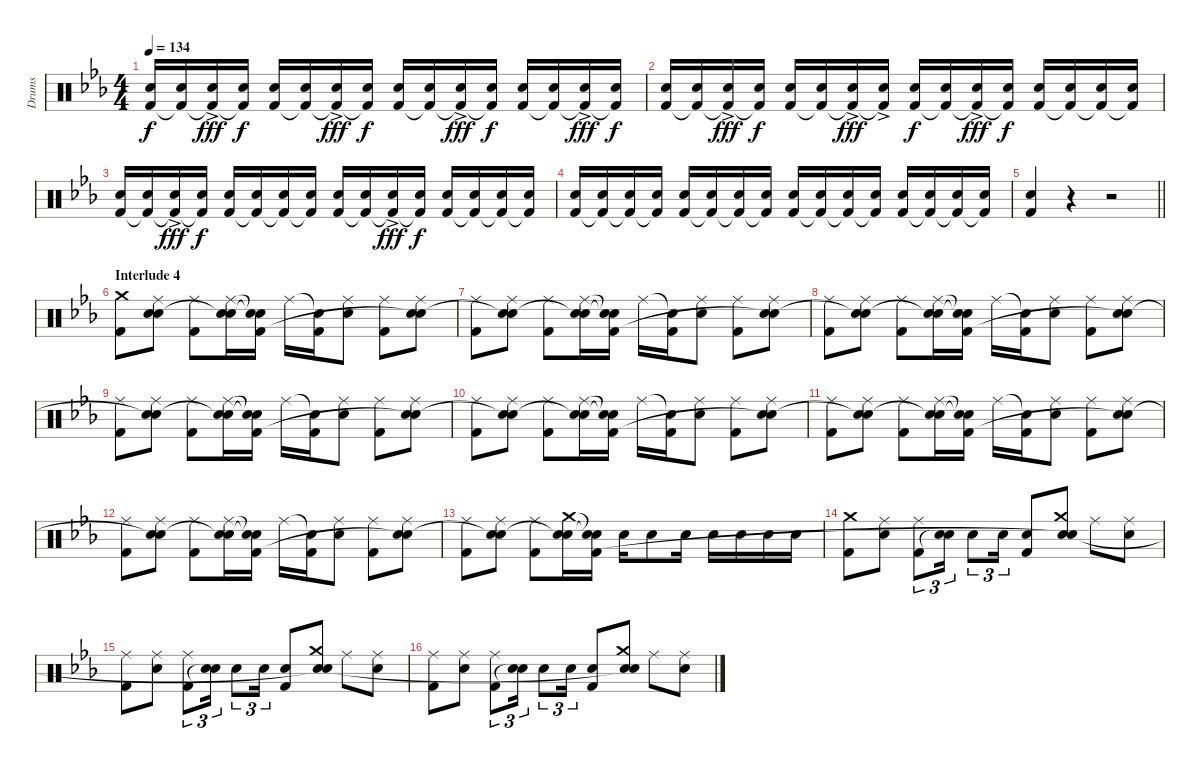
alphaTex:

\track ("Drums" "Drums") {instrument percussion}
\staff {score}
\articulation defaults
\ts (4 4)
\tempo 134
\clef neutral
\ks eb
("Electric Snare (hit)" "Kick (hit) 2").16{dy f} ("Electric Snare (hit)" "Kick (hit) 2"{t}).16 ("Electric Snare (hit)"{ac} "Kick (hit) 2"{t}).16{dy fff} ("Electric Snare (hit)" "Kick (hit) 2"{t}).16{dy f} ("Electric Snare (hit)" "Kick (hit) 2").16 ("Electric Snare (hit)" "Kick (hit) 2"{t}).16 ("Electric Snare (hit)"{ac} "Kick (hit) 2"{t}).16{dy fff} ("Electric Snare (hit)" "Kick (hit) 2"{t}).16{dy f} ("Electric Snare (hit)" "Kick (hit) 2").16 ("Electric Snare (hit)" "Kick (hit) 2"{t}).16 ("Electric Snare (hit)"{ac} "Kick (hit) 2"{t}).16{dy fff} ("Electric Snare (hit)" "Kick (hit) 2"{t}).16{dy f} ("Electric Snare (hit)" "Kick (hit) 2").16 ("Electric Snare (hit)" "Kick (hit) 2"{t}).16 ("Electric Snare (hit)"{ac} "Kick (hit) 2"{t}).16{dy fff} ("Electric Snare (hit)" "Kick (hit) 2"{t}).16{dy f} |
("Electric Snare (hit)" "Kick (hit) 2").16 ("Electric Snare (hit)" "Kick (hit) 2"{t}).16 ("Electric Snare (hit)"{ac} "Kick (hit) 2"{t}).16{dy fff} ("Electric Snare (hit)" "Kick (hit) 2"{t}).16{dy f} ("Electric Snare (hit)" "Kick (hit) 2").16 ("Electric Snare (hit)" "Kick (hit) 2"{t}).16 ("Electric Snare (hit)"{ac} "Kick (hit) 2"{t}).16{dy fff} ("Electric Snare (hit)"{ac} "Kick (hit) 2"{t}).16 ("Electric Snare (hit)" "Kick (hit) 2").16{dy f} ("Electric Snare (hit)" "Kick (hit) 2"{t}).16 ("Electric Snare (hit)"{ac} "Kick (hit) 2"{t}).16{dy fff} ("Electric Snare (hit)" "Kick (hit) 2"{t}).16{dy f} ("Electric Snare (hit)" "Kick (hit) 2").16 ("Electric Snare (hit)" "Kick (hit) 2"{t}).16 ("Electric Snare (hit)" "Kick (hit) 2"{t}).16 ("Electric Snare (hit)" "Kick (hit) 2"{t}).16 |
("Electric Snare (hit)" "Kick (hit) 2").16 ("Electric Snare (hit)" "Kick (hit) 2"{t}).16 ("Electric Snare (hit)"{ac} "Kick (hit) 2"{t}).16{dy fff} ("Electric Snare (hit)" "Kick (hit) 2"{t}).16{dy f} ("Electric Snare (hit)" "Kick (hit) 2").16 ("Electric Snare (hit)" "Kick (hit) 2"{t}).16 ("Electric Snare (hit)" "Kick (hit) 2"{t}).16 ("Electric Snare (hit)" "Kick (hit) 2"{t}).16 ("Electric Snare (hit)" "Kick (hit) 2").16 ("Electric Snare (hit)" "Kick (hit) 2"{t}).16 ("Electric Snare (hit)"{ac} "Kick (hit) 2"{t}).16{dy fff} ("Electric Snare (hit)" "Kick (hit) 2"{t}).16{dy f} ("Electric Snare (hit)" "Kick (hit) 2").16 ("Electric Snare (hit)" "Kick (hit) 2"{t}).16 ("Electric Snare (hit)" "Kick (hit) 2"{t}).16 ("Electric Snare (hit)" "Kick (hit) 2"{t}).16 |
("Electric Snare (hit)" "Kick (hit) 2").16 ("Electric Snare (hit)" "Kick (hit) 2"{t}).16 ("Electric Snare (hit)" "Kick (hit) 2"{t}).16 ("Electric Snare (hit)" "Kick (hit) 2"{t}).16 ("Electric Snare (hit)" "Kick (hit) 2").16 ("Electric Snare (hit)" "Kick (hit) 2"{t}).16 ("Electric Snare (hit)" "Kick (hit) 2"{t}).16 ("Electric Snare (hit)" "Kick (hit) 2"{t}).16 ("Electric Snare (hit)" "Kick (hit) 2").16 ("Electric Snare (hit)" "Kick (hit) 2"{t}).16 ("Electric Snare (hit)" "Kick (hit) 2"{t}).16 ("Electric Snare (hit)" "Kick (hit) 2"{t}).16 ("Electric Snare (hit)" "Kick (hit) 2").16 ("Electric Snare (hit)" "Kick (hit) 2"{t}).16 ("Electric Snare (hit)" "Kick (hit) 2"{t}).16 ("Electric Snare (hit)" "Kick (hit) 2"{t}).16 |
\barLineRight lightlight
("Electric Snare (hit)" "Kick (hit) 2").4 r.4 r.2 |
\section ("" "Interlude 4")
("Crash medium (hit)" "Kick (hit) 2").8 ("Ride (middle)" "Electric Snare (hit)" "Snare (hit)").8 ("Ride (middle)" "Kick (hit) 2").8 ("Ride (middle)" "Electric Snare (hit)" "Snare (hit)"{t}).16 ("Snare (hit)"{t} "Snare (hit)"{t} "Kick (hit) 2").16 "Ride (middle)".16 ("Snare (hit)"{t} "Kick (hit) 2").16 ("Ride (middle)" "Electric Snare (hit)").8 ("Ride (middle)" "Kick (hit) 2").8 ("Ride (middle)" "Electric Snare (hit)" "Snare (hit)"{t}).8 |
("Ride (middle)" "Kick (hit) 2").8 ("Ride (middle)" "Electric Snare (hit)" "Snare (hit)"{t}).8 ("Ride (middle)" "Kick (hit) 2").8 ("Ride (middle)" "Electric Snare (hit)" "Snare (hit)"{t}).16 ("Snare (hit)"{t} "Snare (hit)"{t} "Kick (hit) 2").16 "Ride (middle)".16 ("Snare (hit)"{t} "Kick (hit) 2").16 ("Ride (middle)" "Electric Snare (hit)").8 ("Ride (middle)" "Kick (hit) 2").8 ("Ride (middle)" "Electric Snare (hit)" "Snare (hit)"{t}).8 |
("Ride (middle)" "Kick (hit) 2").8 ("Ride (middle)" "Electric Snare (hit)" "Snare (hit)"{t}).8 ("Ride (middle)" "Kick (hit) 2").8 ("Ride (middle)" "Electric Snare (hit)" "Snare (hit)"{t}).16 ("Snare (hit)"{t} "Snare (hit)"{t} "Kick (hit) 2").16 "Ride (middle)".16 ("Snare (hit)"{t} "Kick (hit) 2").16 ("Ride (middle)" "Electric Snare (hit)").8 ("Ride (middle)" "Kick (hit) 2").8 ("Ride (middle)" "Electric Snare (hit)" "Snare (hit)"{t}).8 |
("Ride (middle)" "Kick (hit) 2").8 ("Ride (middle)" "Electric Snare (hit)" "Snare (hit)"{t}).8 ("Ride (middle)" "Kick (hit) 2").8 ("Ride (middle)" "Electric Snare (hit)" "Snare (hit)"{t}).16 ("Snare (hit)"{t} "Snare (hit)"{t} "Kick (hit) 2").16 "Ride (middle)".16 ("Snare (hit)"{t} "Kick (hit) 2").16 ("Ride (middle)" "Electric Snare (hit)").8 ("Ride (middle)" "Kick (hit) 2").8 ("Ride (middle)" "Electric Snare (hit)" "Snare (hit)"{t}).8 |
("Ride (middle)" "Kick (hit) 2").8 ("Ride (middle)" "Electric Snare (hit)" "Snare (hit)"{t}).8 ("Ride (middle)" "Kick (hit) 2").8 ("Ride (middle)" "Electric Snare (hit)" "Snare (hit)"{t}).16 ("Snare (hit)"{t} "Snare (hit)"{t} "Kick (hit) 2").16 "Ride (middle)".16 ("Snare (hit)"{t} "Kick (hit) 2").16 ("Ride (middle)" "Electric Snare (hit)").8 ("Ride (middle)" "Kick (hit) 2").8 ("Ride (middle)" "Electric Snare (hit)" "Snare (hit)"{t}).8 |
("Ride (middle)" "Kick (hit) 2").8 ("Ride (middle)" "Electric Snare (hit)" "Snare (hit)"{t}).8 ("Ride (middle)" "Kick (hit) 2").8 ("Ride (middle)" "Electric Snare (hit)" "Snare (hit)"{t}).16 ("Snare (hit)"{t} "Snare (hit)"{t} "Kick (hit) 2").16 "Ride (middle)".16 ("Snare (hit)"{t} "Kick (hit) 2").16 ("Ride (middle)" "Electric Snare (hit)").8 ("Ride (middle)" "Kick (hit) 2").8 ("Ride (middle)" "Electric Snare (hit)" "Snare (hit)"{t}).8 |
("Ride (middle)" "Kick (hit) 2").8 ("Ride (middle)" "Electric Snare (hit)" "Snare (hit)"{t}).8 ("Ride (middle)" "Kick (hit) 2").8 ("Ride (middle)" "Electric Snare (hit)" "Snare (hit)"{t}).16 ("Snare (hit)"{t} "Snare (hit)"{t} "Kick (hit) 2").16 "Ride (middle)".16 ("Snare (hit)"{t} "Kick (hit) 2").16 ("Ride (middle)" "Electric Snare (hit)").8 ("Ride (middle)" "Kick (hit) 2").8 ("Ride (middle)" "Electric Snare (hit)" "Snare (hit)"{t}).8 |
("Ride (middle)" "Kick (hit) 2").8 ("Ride (middle)" "Electric Snare (hit)" "Snare (hit)"{t}).8 ("Ride (middle)" "Kick (hit) 2").8 ("Crash medium (hit)" "Electric Snare (hit)" "Snare (hit)"{t}).16 ("Snare (hit)"{t} "Snare (hit)"{t} "Kick (hit) 2").16 "Electric Snare (hit)".16 "Electric Snare (hit)".8 "Electric Snare (hit)".16 "Electric Snare (hit)".16 "Electric Snare (hit)".16 "Electric Snare (hit)".16 "Electric Snare (hit)".16 |
("Crash medium (hit)" "Kick (hit) 2").8 ("Ride (middle)" "Electric Snare (hit)").8 ("Ride (middle)" "Kick (hit) 2").8{tu (3 2)} ("Electric Snare (hit)" "Snare (hit)"{t}).16{tu (3 2)} "Electric Snare (hit)".8{tu (3 2)} "Electric Snare (hit)".16{tu (3 2)} ("Electric Snare (hit)" "Kick (hit) 2").8 ("Crash medium (hit)" "Electric Snare (hit)" "Snare (hit)"{t}).8 "Ride (middle)".8 ("Ride (middle)" "Electric Snare (hit)").8 |
("Ride (middle)" "Kick (hit) 2").8 ("Ride (middle)" "Electric Snare (hit)").8 ("Ride (middle)" "Kick (hit) 2").8{tu (3 2)} ("Electric Snare (hit)" "Snare (hit)"{t}).16{tu (3 2)} "Electric Snare (hit)".8{tu (3 2)} "Electric Snare (hit)".16{tu (3 2)} ("Electric Snare (hit)" "Kick (hit) 2").8 ("Crash medium (hit)" "Electric Snare (hit)" "Snare (hit)"{t}).8 "Ride (middle)".8 ("Ride (middle)" "Electric Snare (hit)").8 |
("Ride (middle)" "Kick (hit) 2").8 ("Ride (middle)" "Electric Snare (hit)").8 ("Ride (middle)" "Kick (hit) 2").8{tu (3 2)} ("Electric Snare (hit)" "Snare (hit)"{t}).16{tu (3 2)} "Electric Snare (hit)".8{tu (3 2)} "Electric Snare (hit)".16{tu (3 2)} ("Electric Snare (hit)" "Kick (hit) 2").8 ("Crash medium (hit)" "Electric Snare (hit)" "Snare (hit)"{t}).8 "Ride (middle)".8 ("Ride (middle)" "Electric Snare (hit)").8
